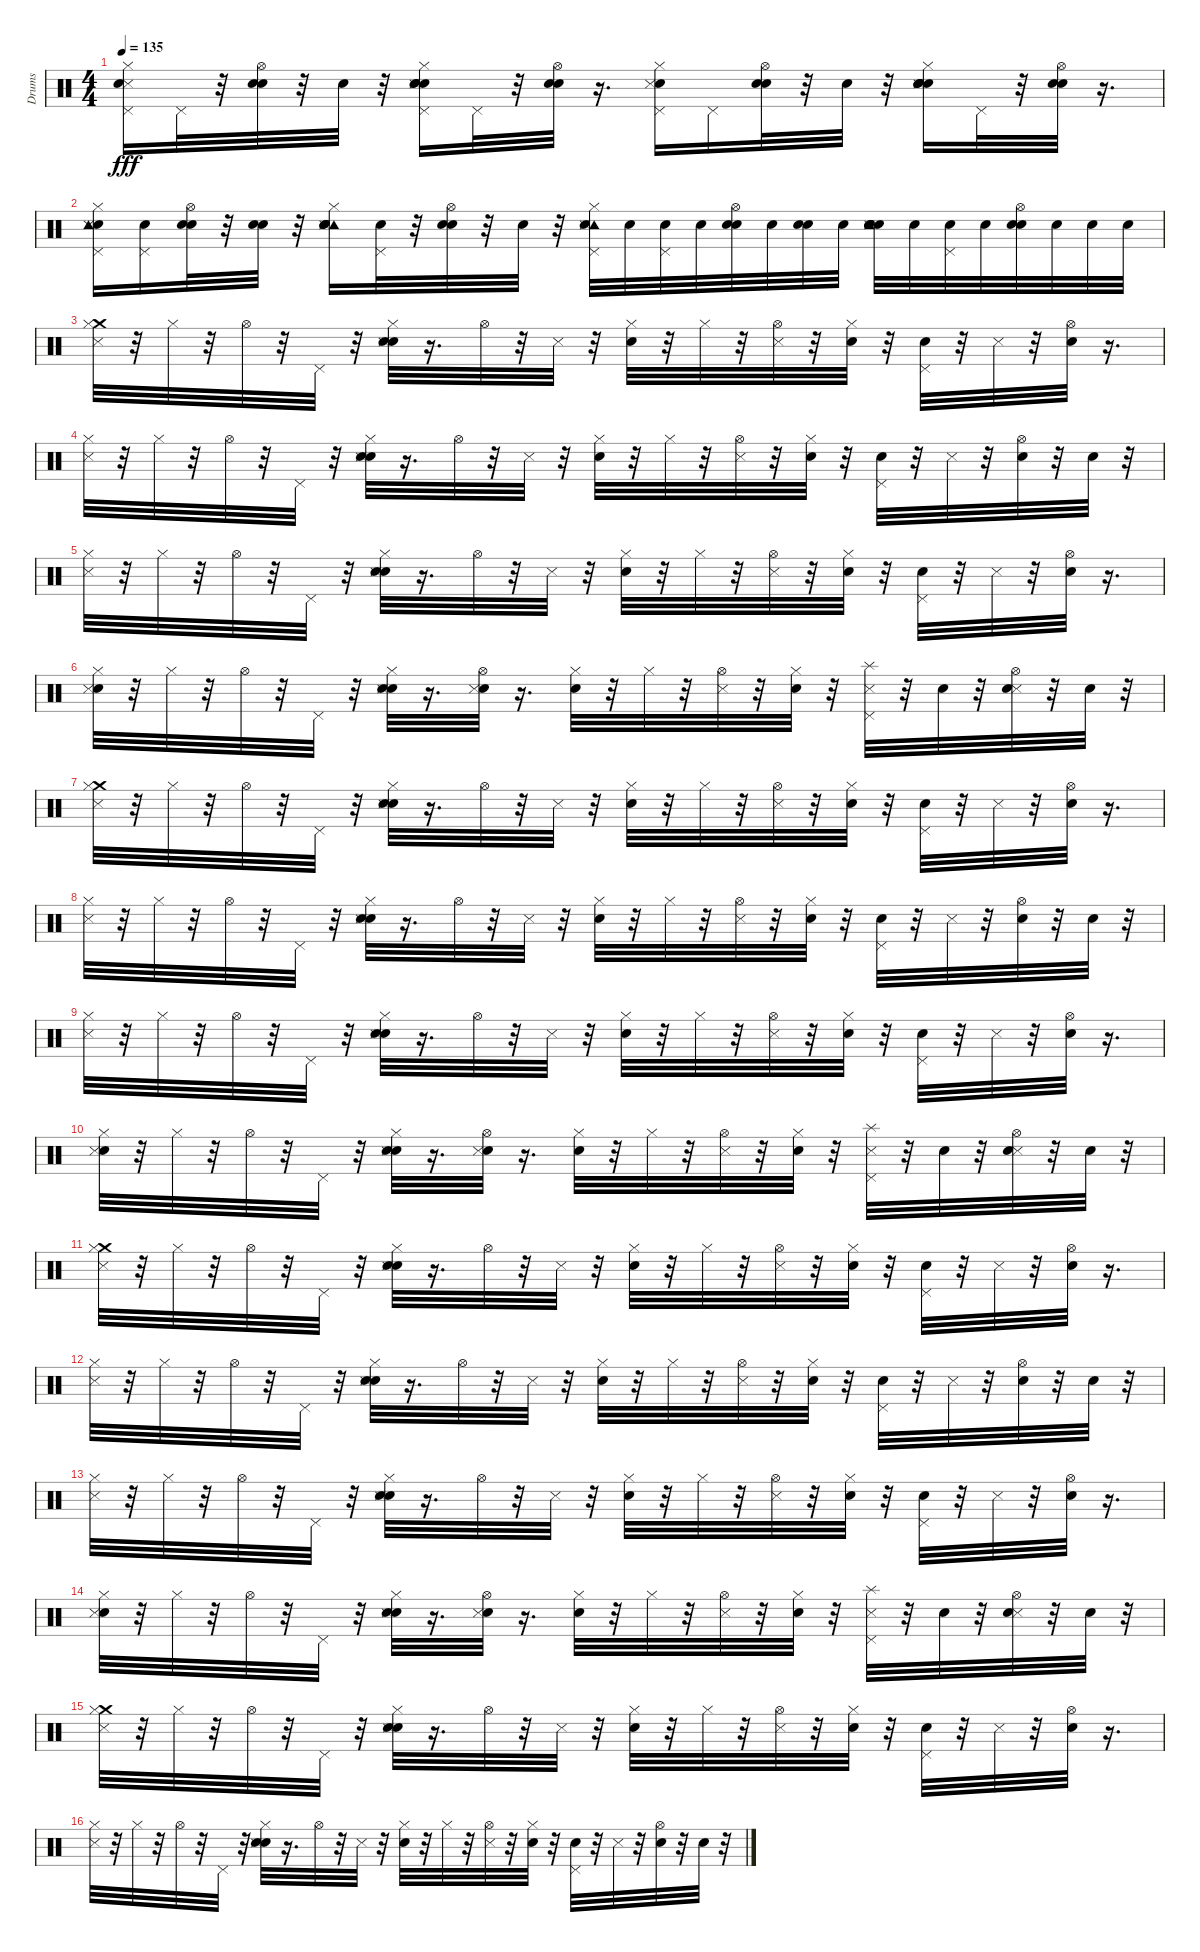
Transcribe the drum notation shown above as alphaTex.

\track ("Drums" "Drums") {instrument percussion}
\staff {score}
\articulation defaults
\ts (4 4)
\tempo 135
\clef neutral
\ks c
("Metronome (hit)" "Pedal Hi-Hat (hit)" "Hi-Hat (closed)" "Snare (hit) 2").16{dy fff} "Pedal Hi-Hat (hit)".32 r.32 ("Hi-Hat (open)" "Snare (hit)" "Snare (hit) 2").32 r.32 "Snare (hit)".32 r.32 ("Electric Snare (hit)" "Snare (hit) 2" "Metronome (hit)" "Hand Clap (hit)" "Hi-Hat (closed)" "Pedal Hi-Hat (hit)").16 "Pedal Hi-Hat (hit)".32 r.32 ("Snare (hit) 2" "Snare (hit)" "Hi-Hat (open)").32 r.16{d} ("Hi-Hat (closed)" "Pedal Hi-Hat (hit)" "Snare (hit) 2" "Metronome (hit)").16 "Pedal Hi-Hat (hit)".16 ("Hi-Hat (open)" "Snare (hit) 2" "Snare (hit)").32 r.32 "Snare (hit)".32 r.32 ("Snare (hit)" "Electric Snare (hit)" "Hand Clap (hit)" "Hi-Hat (closed)" "Snare (hit) 2" "Metronome (hit)").16 "Pedal Hi-Hat (hit)".32 r.32 ("Snare (hit)" "Hi-Hat (open)" "Snare (hit) 2").32 r.16{d} |
("Snare (hit) 2" "Hi-Hat (closed)" "Tambourine (hit)" "Pedal Hi-Hat (hit)" "Metronome (hit)").16 ("Pedal Hi-Hat (hit)" "Snare (hit) 2").16 ("Hi-Hat (open)" "Snare (hit)" "Snare (hit) 2").32 r.32 ("Snare (hit)" "Snare (hit) 2").32 r.32 ("Tambourine (hit)" "Snare (hit)" "Snare (hit) 2" "Electric Snare (hit)" "Metronome (hit)" "Hi-Hat (closed)").16 ("Snare (hit) 2" "Pedal Hi-Hat (hit)").32 r.32 ("Snare (hit)" "Snare (hit) 2" "Hi-Hat (open)").32 r.32 "Snare (hit) 2".32 r.32 ("Tambourine (hit)" "Metronome (hit)" "Snare (hit) 2" "Hi-Hat (closed)" "Pedal Hi-Hat (hit)").32 "Snare (hit) 2".32 ("Pedal Hi-Hat (hit)" "Snare (hit) 2").32 "Snare (hit) 2".32 ("Hi-Hat (open)" "Snare (hit)" "Snare (hit) 2").32 "Snare (hit) 2".32 ("Snare (hit)" "Snare (hit) 2").32 "Snare (hit) 2".32 ("Hand Clap (hit)" "Tambourine (hit)" "Metronome (hit)" "Snare (hit) 2" "Electric Snare (hit)" "Snare (hit)").32 "Snare (hit) 2".32 ("Snare (hit) 2" "Pedal Hi-Hat (hit)").32 "Snare (hit) 2".32 ("Snare (hit)" "Snare (hit) 2" "Hi-Hat (open)").32 "Snare (hit) 2".32 "Snare (hit) 2".32 "Snare (hit) 2".32 |
("Crash medium (hit)" "Metronome (hit)" "Hi-Hat (closed)").32 r.32 "Hi-Hat (closed)".32 r.32 "Hi-Hat (open)".32 r.32 "Pedal Hi-Hat (hit)".32 r.32 ("Hand Clap (hit)" "Electric Snare (hit)" "Hi-Hat (closed)" "Metronome (hit)").32 r.16{d} "Hi-Hat (open)".32 r.32 "Metronome (hit)".32 r.32 ("Electric Snare (hit)" "Hi-Hat (closed)").32 r.32 "Hi-Hat (closed)".32 r.32 ("Hi-Hat (open)" "Metronome (hit)").32 r.32 ("Electric Snare (hit)" "Hi-Hat (closed)").32 r.32 ("Hand Clap (hit)" "Pedal Hi-Hat (hit)").32 r.32 "Metronome (hit)".32 r.32 ("Hi-Hat (open)" "Electric Snare (hit)").32 r.16{d} |
("Metronome (hit)" "Hi-Hat (closed)").32 r.32 "Hi-Hat (closed)".32 r.32 "Hi-Hat (open)".32 r.32 "Pedal Hi-Hat (hit)".32 r.32 ("Hand Clap (hit)" "Electric Snare (hit)" "Hi-Hat (closed)" "Metronome (hit)").32 r.16{d} "Hi-Hat (open)".32 r.32 "Metronome (hit)".32 r.32 ("Electric Snare (hit)" "Hi-Hat (closed)").32 r.32 "Hi-Hat (closed)".32 r.32 ("Hi-Hat (open)" "Metronome (hit)").32 r.32 ("Electric Snare (hit)" "Hi-Hat (closed)").32 r.32 ("Hand Clap (hit)" "Pedal Hi-Hat (hit)").32 r.32 "Metronome (hit)".32 r.32 ("Hi-Hat (open)" "Electric Snare (hit)").32 r.32 "Electric Snare (hit)".32 r.32 |
("Metronome (hit)" "Hi-Hat (closed)").32 r.32 "Hi-Hat (closed)".32 r.32 "Hi-Hat (open)".32 r.32 "Pedal Hi-Hat (hit)".32 r.32 ("Hand Clap (hit)" "Electric Snare (hit)" "Hi-Hat (closed)" "Metronome (hit)").32 r.16{d} "Hi-Hat (open)".32 r.32 "Metronome (hit)".32 r.32 ("Electric Snare (hit)" "Hi-Hat (closed)").32 r.32 "Hi-Hat (closed)".32 r.32 ("Hi-Hat (open)" "Metronome (hit)").32 r.32 ("Electric Snare (hit)" "Hi-Hat (closed)").32 r.32 ("Hand Clap (hit)" "Pedal Hi-Hat (hit)").32 r.32 "Metronome (hit)".32 r.32 ("Hi-Hat (open)" "Electric Snare (hit)").32 r.16{d} |
("Electric Snare (hit)" "Metronome (hit)" "Hi-Hat (closed)").32 r.32 "Hi-Hat (closed)".32 r.32 "Hi-Hat (open)".32 r.32 "Pedal Hi-Hat (hit)".32 r.32 ("Hand Clap (hit)" "Electric Snare (hit)" "Hi-Hat (closed)" "Metronome (hit)").32 r.16{d} ("Electric Snare (hit)" "Hi-Hat (open)" "Metronome (hit)").32 r.16{d} ("Electric Snare (hit)" "Hi-Hat (closed)").32 r.32 "Hi-Hat (closed)".32 r.32 ("Hi-Hat (open)" "Metronome (hit)").32 r.32 ("Hi-Hat (closed)" "Electric Snare (hit)").32 r.32 ("Splash (hit)" "Pedal Hi-Hat (hit)" "Metronome (hit)").32 r.32 "Electric Snare (hit)".32 r.32 ("Metronome (hit)" "Hi-Hat (open)" "Electric Snare (hit)").32 r.32 "Electric Snare (hit)".32 r.32 |
("Crash medium (hit)" "Metronome (hit)" "Hi-Hat (closed)").32 r.32 "Hi-Hat (closed)".32 r.32 "Hi-Hat (open)".32 r.32 "Pedal Hi-Hat (hit)".32 r.32 ("Hand Clap (hit)" "Electric Snare (hit)" "Hi-Hat (closed)" "Metronome (hit)").32 r.16{d} "Hi-Hat (open)".32 r.32 "Metronome (hit)".32 r.32 ("Electric Snare (hit)" "Hi-Hat (closed)").32 r.32 "Hi-Hat (closed)".32 r.32 ("Hi-Hat (open)" "Metronome (hit)").32 r.32 ("Electric Snare (hit)" "Hi-Hat (closed)").32 r.32 ("Hand Clap (hit)" "Pedal Hi-Hat (hit)").32 r.32 "Metronome (hit)".32 r.32 ("Hi-Hat (open)" "Electric Snare (hit)").32 r.16{d} |
("Metronome (hit)" "Hi-Hat (closed)").32 r.32 "Hi-Hat (closed)".32 r.32 "Hi-Hat (open)".32 r.32 "Pedal Hi-Hat (hit)".32 r.32 ("Hand Clap (hit)" "Electric Snare (hit)" "Hi-Hat (closed)" "Metronome (hit)").32 r.16{d} "Hi-Hat (open)".32 r.32 "Metronome (hit)".32 r.32 ("Electric Snare (hit)" "Hi-Hat (closed)").32 r.32 "Hi-Hat (closed)".32 r.32 ("Hi-Hat (open)" "Metronome (hit)").32 r.32 ("Electric Snare (hit)" "Hi-Hat (closed)").32 r.32 ("Hand Clap (hit)" "Pedal Hi-Hat (hit)").32 r.32 "Metronome (hit)".32 r.32 ("Hi-Hat (open)" "Electric Snare (hit)").32 r.32 "Electric Snare (hit)".32 r.32 |
("Metronome (hit)" "Hi-Hat (closed)").32 r.32 "Hi-Hat (closed)".32 r.32 "Hi-Hat (open)".32 r.32 "Pedal Hi-Hat (hit)".32 r.32 ("Hand Clap (hit)" "Electric Snare (hit)" "Hi-Hat (closed)" "Metronome (hit)").32 r.16{d} "Hi-Hat (open)".32 r.32 "Metronome (hit)".32 r.32 ("Electric Snare (hit)" "Hi-Hat (closed)").32 r.32 "Hi-Hat (closed)".32 r.32 ("Hi-Hat (open)" "Metronome (hit)").32 r.32 ("Electric Snare (hit)" "Hi-Hat (closed)").32 r.32 ("Hand Clap (hit)" "Pedal Hi-Hat (hit)").32 r.32 "Metronome (hit)".32 r.32 ("Hi-Hat (open)" "Electric Snare (hit)").32 r.16{d} |
("Electric Snare (hit)" "Metronome (hit)" "Hi-Hat (closed)").32 r.32 "Hi-Hat (closed)".32 r.32 "Hi-Hat (open)".32 r.32 "Pedal Hi-Hat (hit)".32 r.32 ("Hand Clap (hit)" "Electric Snare (hit)" "Hi-Hat (closed)" "Metronome (hit)").32 r.16{d} ("Electric Snare (hit)" "Hi-Hat (open)" "Metronome (hit)").32 r.16{d} ("Electric Snare (hit)" "Hi-Hat (closed)").32 r.32 "Hi-Hat (closed)".32 r.32 ("Hi-Hat (open)" "Metronome (hit)").32 r.32 ("Hi-Hat (closed)" "Electric Snare (hit)").32 r.32 ("Splash (hit)" "Pedal Hi-Hat (hit)" "Metronome (hit)").32 r.32 "Electric Snare (hit)".32 r.32 ("Metronome (hit)" "Hi-Hat (open)" "Electric Snare (hit)").32 r.32 "Electric Snare (hit)".32 r.32 |
("Crash medium (hit)" "Metronome (hit)" "Hi-Hat (closed)").32 r.32 "Hi-Hat (closed)".32 r.32 "Hi-Hat (open)".32 r.32 "Pedal Hi-Hat (hit)".32 r.32 ("Hand Clap (hit)" "Electric Snare (hit)" "Hi-Hat (closed)" "Metronome (hit)").32 r.16{d} "Hi-Hat (open)".32 r.32 "Metronome (hit)".32 r.32 ("Electric Snare (hit)" "Hi-Hat (closed)").32 r.32 "Hi-Hat (closed)".32 r.32 ("Hi-Hat (open)" "Metronome (hit)").32 r.32 ("Electric Snare (hit)" "Hi-Hat (closed)").32 r.32 ("Hand Clap (hit)" "Pedal Hi-Hat (hit)").32 r.32 "Metronome (hit)".32 r.32 ("Hi-Hat (open)" "Electric Snare (hit)").32 r.16{d} |
("Metronome (hit)" "Hi-Hat (closed)").32 r.32 "Hi-Hat (closed)".32 r.32 "Hi-Hat (open)".32 r.32 "Pedal Hi-Hat (hit)".32 r.32 ("Hand Clap (hit)" "Electric Snare (hit)" "Hi-Hat (closed)" "Metronome (hit)").32 r.16{d} "Hi-Hat (open)".32 r.32 "Metronome (hit)".32 r.32 ("Electric Snare (hit)" "Hi-Hat (closed)").32 r.32 "Hi-Hat (closed)".32 r.32 ("Hi-Hat (open)" "Metronome (hit)").32 r.32 ("Electric Snare (hit)" "Hi-Hat (closed)").32 r.32 ("Hand Clap (hit)" "Pedal Hi-Hat (hit)").32 r.32 "Metronome (hit)".32 r.32 ("Hi-Hat (open)" "Electric Snare (hit)").32 r.32 "Electric Snare (hit)".32 r.32 |
("Metronome (hit)" "Hi-Hat (closed)").32 r.32 "Hi-Hat (closed)".32 r.32 "Hi-Hat (open)".32 r.32 "Pedal Hi-Hat (hit)".32 r.32 ("Hand Clap (hit)" "Electric Snare (hit)" "Hi-Hat (closed)" "Metronome (hit)").32 r.16{d} "Hi-Hat (open)".32 r.32 "Metronome (hit)".32 r.32 ("Electric Snare (hit)" "Hi-Hat (closed)").32 r.32 "Hi-Hat (closed)".32 r.32 ("Hi-Hat (open)" "Metronome (hit)").32 r.32 ("Electric Snare (hit)" "Hi-Hat (closed)").32 r.32 ("Hand Clap (hit)" "Pedal Hi-Hat (hit)").32 r.32 "Metronome (hit)".32 r.32 ("Hi-Hat (open)" "Electric Snare (hit)").32 r.16{d} |
("Electric Snare (hit)" "Metronome (hit)" "Hi-Hat (closed)").32 r.32 "Hi-Hat (closed)".32 r.32 "Hi-Hat (open)".32 r.32 "Pedal Hi-Hat (hit)".32 r.32 ("Hand Clap (hit)" "Electric Snare (hit)" "Hi-Hat (closed)" "Metronome (hit)").32 r.16{d} ("Electric Snare (hit)" "Hi-Hat (open)" "Metronome (hit)").32 r.16{d} ("Electric Snare (hit)" "Hi-Hat (closed)").32 r.32 "Hi-Hat (closed)".32 r.32 ("Hi-Hat (open)" "Metronome (hit)").32 r.32 ("Hi-Hat (closed)" "Electric Snare (hit)").32 r.32 ("Splash (hit)" "Pedal Hi-Hat (hit)" "Metronome (hit)").32 r.32 "Electric Snare (hit)".32 r.32 ("Metronome (hit)" "Hi-Hat (open)" "Electric Snare (hit)").32 r.32 "Electric Snare (hit)".32 r.32 |
("Crash medium (hit)" "Metronome (hit)" "Hi-Hat (closed)").32 r.32 "Hi-Hat (closed)".32 r.32 "Hi-Hat (open)".32 r.32 "Pedal Hi-Hat (hit)".32 r.32 ("Hand Clap (hit)" "Electric Snare (hit)" "Hi-Hat (closed)" "Metronome (hit)").32 r.16{d} "Hi-Hat (open)".32 r.32 "Metronome (hit)".32 r.32 ("Electric Snare (hit)" "Hi-Hat (closed)").32 r.32 "Hi-Hat (closed)".32 r.32 ("Hi-Hat (open)" "Metronome (hit)").32 r.32 ("Electric Snare (hit)" "Hi-Hat (closed)").32 r.32 ("Hand Clap (hit)" "Pedal Hi-Hat (hit)").32 r.32 "Metronome (hit)".32 r.32 ("Hi-Hat (open)" "Electric Snare (hit)").32 r.16{d} |
("Metronome (hit)" "Hi-Hat (closed)").32 r.32 "Hi-Hat (closed)".32 r.32 "Hi-Hat (open)".32 r.32 "Pedal Hi-Hat (hit)".32 r.32 ("Hand Clap (hit)" "Electric Snare (hit)" "Hi-Hat (closed)" "Metronome (hit)").32 r.16{d} "Hi-Hat (open)".32 r.32 "Metronome (hit)".32 r.32 ("Electric Snare (hit)" "Hi-Hat (closed)").32 r.32 "Hi-Hat (closed)".32 r.32 ("Hi-Hat (open)" "Metronome (hit)").32 r.32 ("Electric Snare (hit)" "Hi-Hat (closed)").32 r.32 ("Hand Clap (hit)" "Pedal Hi-Hat (hit)").32 r.32 "Metronome (hit)".32 r.32 ("Hi-Hat (open)" "Electric Snare (hit)").32 r.32 "Electric Snare (hit)".32 r.32
